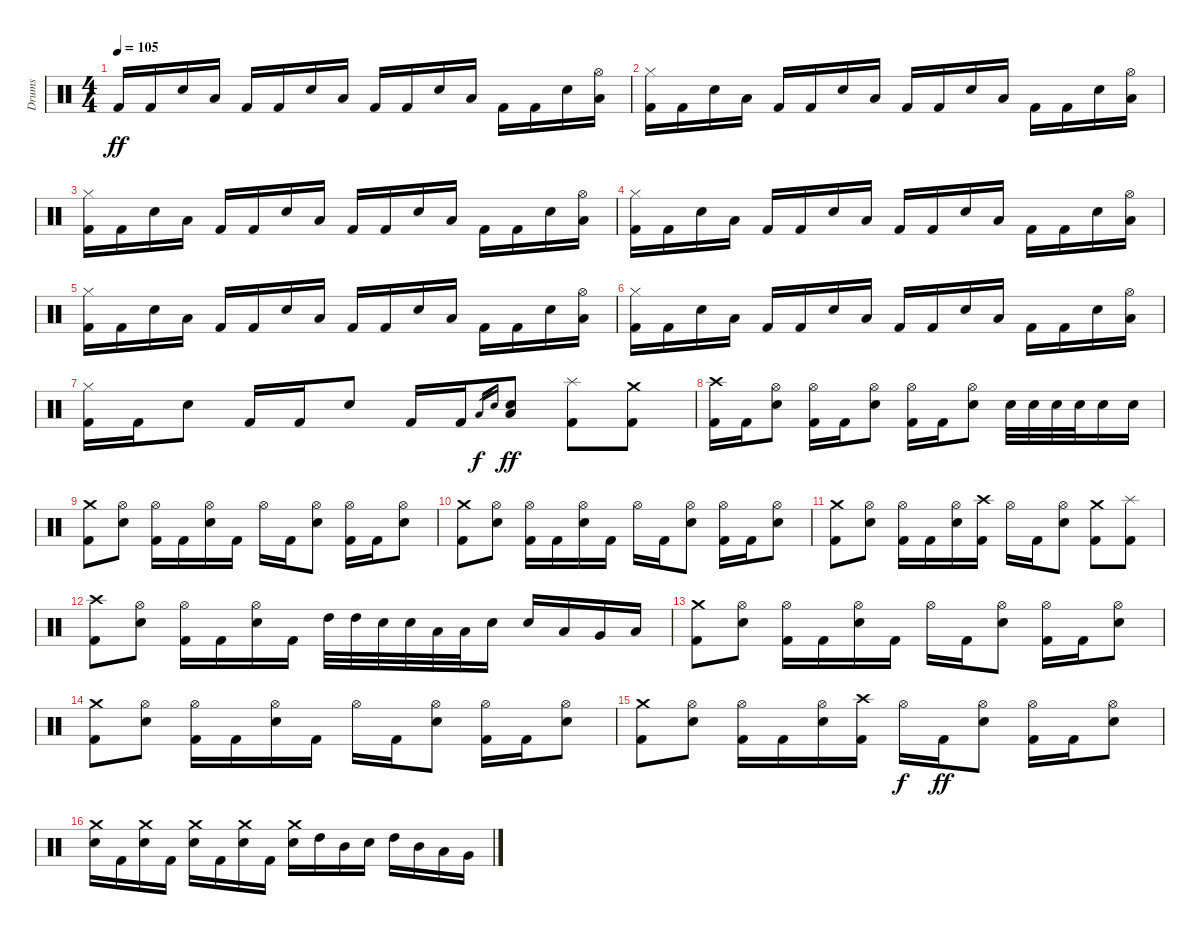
\track ("Drums" "Drums") {instrument percussion}
\staff {score}
\articulation defaults
\ts (4 4)
\tempo 105
\clef neutral
\ks c "Kick (hit) 2".16{dy ff} "Kick (hit) 2".16 "Electric Snare (hit)".16 "Low Tom (hit)".16 "Kick (hit) 2".16 "Kick (hit) 2".16 "Electric Snare (hit)".16 "Low Tom (hit)".16 "Kick (hit) 2".16 "Kick (hit) 2".16 "Electric Snare (hit)".16 "Low Tom (hit)".16 "Kick (hit) 2".16 "Kick (hit) 2".16 "Electric Snare (hit)".16
("Hi-Hat (open)" "Low Tom (hit)").16 |
("Hi-Hat (closed)" "Kick (hit) 2").16 "Kick (hit) 2".16 "Electric Snare (hit)".16 "Low Tom (hit)".16 "Kick (hit) 2".16 "Kick (hit) 2".16 "Electric Snare (hit)".16 "Low Tom (hit)".16 "Kick (hit) 2".16 "Kick (hit) 2".16 "Electric Snare (hit)".16 "Low Tom (hit)".16 "Kick (hit) 2".16 "Kick (hit) 2".16 "Electric Snare (hit)".16 ("Hi-Hat (open)" "Low Tom (hit)").16 |
("Hi-Hat (closed)" "Kick (hit) 2").16 "Kick (hit) 2".16 "Electric Snare (hit)".16 "Low Tom (hit)".16 "Kick (hit) 2".16 "Kick (hit) 2".16 "Electric Snare (hit)".16 "Low Tom (hit)".16 "Kick (hit) 2".16 "Kick (hit) 2".16 "Electric Snare (hit)".16 "Low Tom (hit)".16 "Kick (hit) 2".16 "Kick (hit) 2".16 "Electric Snare (hit)".16 ("Hi-Hat (open)" "Low Tom (hit)").16 |
("Hi-Hat (closed)" "Kick (hit) 2").16 "Kick (hit) 2".16 "Electric Snare (hit)".16 "Low Tom (hit)".16 "Kick (hit) 2".16 "Kick (hit) 2".16 "Electric Snare (hit)".16 "Low Tom (hit)".16 "Kick (hit) 2".16 "Kick (hit) 2".16 "Electric Snare (hit)".16 "Low Tom (hit)".16 "Kick (hit) 2".16 "Kick (hit) 2".16 "Electric Snare (hit)".16 ("Hi-Hat (open)" "Low Tom (hit)").16 |
("Hi-Hat (closed)" "Kick (hit) 2").16 "Kick (hit) 2".16 "Electric Snare (hit)".16 "Low Tom (hit)".16 "Kick (hit) 2".16 "Kick (hit) 2".16 "Electric Snare (hit)".16 "Low Tom (hit)".16 "Kick (hit) 2".16 "Kick (hit) 2".16 "Electric Snare (hit)".16 "Low Tom (hit)".16 "Kick (hit) 2".16 "Kick (hit) 2".16 "Electric Snare (hit)".16 ("Hi-Hat (open)" "Low Tom (hit)").16 |
("Hi-Hat (closed)" "Kick (hit) 2").16 "Kick (hit) 2".16 "Electric Snare (hit)".16 "Low Tom (hit)".16 "Kick (hit) 2".16 "Kick (hit) 2".16 "Electric Snare (hit)".16 "Low Tom (hit)".16 "Kick (hit) 2".16 "Kick (hit) 2".16 "Electric Snare (hit)".16 "Low Tom (hit)".16 "Kick (hit) 2".16 "Kick (hit) 2".16 "Electric Snare (hit)".16 ("Hi-Hat (open)" "Low Tom (hit)").16 |
("Hi-Hat (closed)" "Kick (hit) 2").16 "Kick (hit) 2".16 "Electric Snare (hit)".8 "Kick (hit) 2".16 "Kick (hit) 2".16 "Electric Snare (hit)".8 "Kick (hit) 2".16 "Kick (hit) 2".16 "Low Tom (hit)".16{gr dy f} "Electric Snare (hit)".16{gr} ("Low Tom (hit)" "Electric Snare (hit)").8{dy ff} ("Splash (hit)" "Kick (hit) 2").8 ("Crash medium (hit)" "Kick (hit) 2").8 |
("Crash high (hit)" "Kick (hit) 2").16 "Kick (hit) 2".16 ("Hi-Hat (open)" "Electric Snare (hit)").8 ("Hi-Hat (open)" "Kick (hit) 2").16 "Kick (hit) 2".16 ("Hi-Hat (open)" "Electric Snare (hit)").8 ("Hi-Hat (open)" "Kick (hit) 2").16 "Kick (hit) 2".16 ("Hi-Hat (open)" "Electric Snare (hit)").8 "Electric Snare (hit)".32 "Electric Snare (hit)".32 "Electric Snare (hit)".32 "Electric Snare (hit)".32 "Electric Snare (hit)".16 "Electric Snare (hit)".16 |
("Crash medium (hit)" "Kick (hit) 2").8 ("Hi-Hat (open)" "Electric Snare (hit)").8 ("Hi-Hat (open)" "Kick (hit) 2").16 "Kick (hit) 2".16 ("Hi-Hat (open)" "Electric Snare (hit)").16 "Kick (hit) 2".16 "Hi-Hat (open)".16 "Kick (hit) 2".16 ("Hi-Hat (open)" "Electric Snare (hit)").8 ("Hi-Hat (open)" "Kick (hit) 2").16 "Kick (hit) 2".16 ("Hi-Hat (open)" "Electric Snare (hit)").8 |
("Crash medium (hit)" "Kick (hit) 2").8 ("Hi-Hat (open)" "Electric Snare (hit)").8 ("Hi-Hat (open)" "Kick (hit) 2").16 "Kick (hit) 2".16 ("Hi-Hat (open)" "Electric Snare (hit)").16 "Kick (hit) 2".16 "Hi-Hat (open)".16 "Kick (hit) 2".16 ("Hi-Hat (open)" "Electric Snare (hit)").8 ("Hi-Hat (open)" "Kick (hit) 2").16 "Kick (hit) 2".16 ("Hi-Hat (open)" "Electric Snare (hit)").8 |
("Crash medium (hit)" "Kick (hit) 2").8 ("Hi-Hat (open)" "Electric Snare (hit)").8 ("Hi-Hat (open)" "Kick (hit) 2").16 "Kick (hit) 2".16 ("Hi-Hat (open)" "Electric Snare (hit)").16 ("Crash high (hit)" "Kick (hit) 2").16 "Hi-Hat (open)".16 "Kick (hit) 2".16 ("Hi-Hat (open)" "Electric Snare (hit)").8 ("Crash medium (hit)" "Kick (hit) 2").8 ("Splash (hit)" "Kick (hit) 2").8 |
("Crash high (hit)" "Kick (hit) 2").8 ("Hi-Hat (open)" "Electric Snare (hit)").8 ("Hi-Hat (open)" "Kick (hit) 2").16 "Kick (hit) 2".16 ("Hi-Hat (open)" "Electric Snare (hit)").16 "Kick (hit) 2".16 "High Tom (hit)".32 "High Tom (hit)".32 "Electric Snare (hit)".32 "Electric Snare (hit)".32 "Low Tom (hit)".32 "Low Tom (hit)".32 "Electric Snare (hit)".16 "Electric Snare (hit)".16 "Low Tom (hit)".16 "Very Low Tom (hit)".16 "Low Floor Tom (hit)".16 |
("Crash medium (hit)" "Kick (hit) 2").8 ("Hi-Hat (open)" "Electric Snare (hit)").8 ("Hi-Hat (open)" "Kick (hit) 2").16 "Kick (hit) 2".16 ("Hi-Hat (open)" "Electric Snare (hit)").16 "Kick (hit) 2".16 "Hi-Hat (open)".16 "Kick (hit) 2".16 ("Hi-Hat (open)" "Electric Snare (hit)").8 ("Hi-Hat (open)" "Kick (hit) 2").16 "Kick (hit) 2".16 ("Hi-Hat (open)" "Electric Snare (hit)").8 |
("Crash medium (hit)" "Kick (hit) 2").8 ("Hi-Hat (open)" "Electric Snare (hit)").8 ("Hi-Hat (open)" "Kick (hit) 2").16 "Kick (hit) 2".16 ("Hi-Hat (open)" "Electric Snare (hit)").16 "Kick (hit) 2".16 "Hi-Hat (open)".16 "Kick (hit) 2".16 ("Hi-Hat (open)" "Electric Snare (hit)").8 ("Hi-Hat (open)" "Kick (hit) 2").16 "Kick (hit) 2".16 ("Hi-Hat (open)" "Electric Snare (hit)").8 |
("Crash medium (hit)" "Kick (hit) 2").8 ("Hi-Hat (open)" "Electric Snare (hit)").8 ("Hi-Hat (open)" "Kick (hit) 2").16 "Kick (hit) 2".16 ("Hi-Hat (open)" "Electric Snare (hit)").16 ("Crash high (hit)" "Kick (hit) 2").16 "Hi-Hat (open)".16{dy f} "Kick (hit) 2".16{dy ff} ("Hi-Hat (open)" "Electric Snare (hit)").8 ("Hi-Hat (open)" "Kick (hit) 2").16 "Kick (hit) 2".16 ("Hi-Hat (open)" "Electric Snare (hit)").8 |
("Crash medium (hit)" "Electric Snare (hit)").16 "Kick (hit) 2".16 ("Crash medium (hit)" "Electric Snare (hit)").16 "Kick (hit) 2".16 ("Crash medium (hit)" "Electric Snare (hit)").16 "Kick (hit) 2".16 ("Crash medium (hit)" "Electric Snare (hit)").16 "Kick (hit) 2".16 ("Crash medium (hit)" "Electric Snare (hit)").16 "High Tom (hit)".16 "Mid Tom (hit)".16 "Electric Snare (hit)".16 "High Tom (hit)".16 "Mid Tom (hit)".16 "Low Tom (hit)".16 "Very Low Tom (hit)".16
